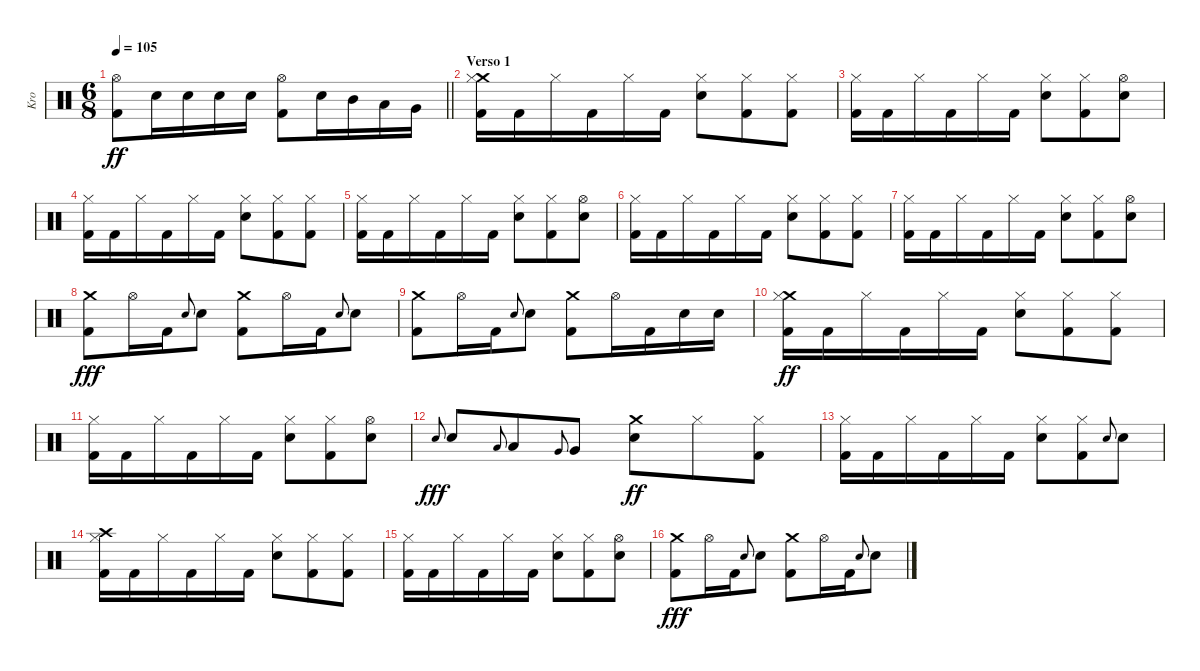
\track ("Kro" "Kro") {instrument percussion}
\staff {score}
\articulation defaults
\ts (6 8)
\tempo 105
\clef neutral
\barLineRight lightlight
\ks c
("Hi-Hat (open)" "Kick (hit) 2").8{dy ff} "Electric Snare (hit)".16 "Electric Snare (hit)".16 "Electric Snare (hit)".16 "Electric Snare (hit)".16 ("Hi-Hat (open)" "Kick (hit) 2").8 "Electric Snare (hit)".16 "Mid Tom (hit)".16 "Low Tom (hit)".16 "Very Low Tom (hit)".16 |
\section ("" "Verso 1")
("Crash medium (hit)" "Hi-Hat (closed)" "Kick (hit) 2").16 "Kick (hit) 2".16 "Hi-Hat (closed)".16 "Kick (hit) 2".16 "Hi-Hat (closed)".16 "Kick (hit) 2".16 ("Hi-Hat (closed)" "Electric Snare (hit)").8 ("Hi-Hat (closed)" "Kick (hit) 2").8 ("Hi-Hat (closed)" "Kick (hit) 2").8 |
("Hi-Hat (closed)" "Kick (hit) 2").16 "Kick (hit) 2".16 "Hi-Hat (closed)".16 "Kick (hit) 2".16 "Hi-Hat (closed)".16 "Kick (hit) 2".16 ("Hi-Hat (closed)" "Electric Snare (hit)").8 ("Hi-Hat (closed)" "Kick (hit) 2").8 ("Hi-Hat (open)" "Electric Snare (hit)").8 |
("Hi-Hat (closed)" "Kick (hit) 2").16 "Kick (hit) 2".16 "Hi-Hat (closed)".16 "Kick (hit) 2".16 "Hi-Hat (closed)".16 "Kick (hit) 2".16 ("Hi-Hat (closed)" "Electric Snare (hit)").8 ("Hi-Hat (closed)" "Kick (hit) 2").8 ("Hi-Hat (closed)" "Kick (hit) 2").8 |
("Hi-Hat (closed)" "Kick (hit) 2").16 "Kick (hit) 2".16 "Hi-Hat (closed)".16 "Kick (hit) 2".16 "Hi-Hat (closed)".16 "Kick (hit) 2".16 ("Hi-Hat (closed)" "Electric Snare (hit)").8 ("Hi-Hat (closed)" "Kick (hit) 2").8 ("Hi-Hat (open)" "Electric Snare (hit)").8 |
("Hi-Hat (closed)" "Kick (hit) 2").16 "Kick (hit) 2".16 "Hi-Hat (closed)".16 "Kick (hit) 2".16 "Hi-Hat (closed)".16 "Kick (hit) 2".16 ("Hi-Hat (closed)" "Electric Snare (hit)").8 ("Hi-Hat (closed)" "Kick (hit) 2").8 ("Hi-Hat (closed)" "Kick (hit) 2").8 |
("Hi-Hat (closed)" "Kick (hit) 2").16 "Kick (hit) 2".16 "Hi-Hat (closed)".16 "Kick (hit) 2".16 "Hi-Hat (closed)".16 "Kick (hit) 2".16 ("Hi-Hat (closed)" "Electric Snare (hit)").8 ("Hi-Hat (closed)" "Kick (hit) 2").8 ("Hi-Hat (open)" "Electric Snare (hit)").8 |
("Crash medium (hit)" "Kick (hit) 2").8{dy fff} "Hi-Hat (open)".16 "Kick (hit) 2".16 "Electric Snare (hit)".8{gr onbeat} "Electric Snare (hit)".8 ("Crash medium (hit)" "Kick (hit) 2").8 "Hi-Hat (open)".16 "Kick (hit) 2".16 "Electric Snare (hit)".8{gr onbeat} "Electric Snare (hit)".8 |
("Crash medium (hit)" "Kick (hit) 2").8 "Hi-Hat (open)".16 "Kick (hit) 2".16 "Electric Snare (hit)".8{gr onbeat} "Electric Snare (hit)".8 ("Crash medium (hit)" "Kick (hit) 2").8 "Hi-Hat (open)".16 "Kick (hit) 2".16 "Electric Snare (hit)".16 "Electric Snare (hit)".16 |
("Crash medium (hit)" "Hi-Hat (closed)" "Kick (hit) 2").16{dy ff} "Kick (hit) 2".16 "Hi-Hat (closed)".16 "Kick (hit) 2".16 "Hi-Hat (closed)".16 "Kick (hit) 2".16 ("Hi-Hat (closed)" "Electric Snare (hit)").8 ("Hi-Hat (closed)" "Kick (hit) 2").8 ("Hi-Hat (closed)" "Kick (hit) 2").8 |
("Hi-Hat (closed)" "Kick (hit) 2").16 "Kick (hit) 2".16 "Hi-Hat (closed)".16 "Kick (hit) 2".16 "Hi-Hat (closed)".16 "Kick (hit) 2".16 ("Hi-Hat (closed)" "Electric Snare (hit)").8 ("Hi-Hat (closed)" "Kick (hit) 2").8 ("Hi-Hat (open)" "Electric Snare (hit)").8 |
"Electric Snare (hit)".8{gr onbeat dy fff} "Electric Snare (hit)".8 "Low Tom (hit)".8{gr onbeat} "Low Tom (hit)".8 "Very Low Tom (hit)".8{gr onbeat} "Very Low Tom (hit)".8 ("Crash medium (hit)" "Electric Snare (hit)").8{dy ff} "Hi-Hat (closed)".8 ("Hi-Hat (closed)" "Kick (hit) 2").8 |
("Hi-Hat (closed)" "Kick (hit) 2").16 "Kick (hit) 2".16 "Hi-Hat (closed)".16 "Kick (hit) 2".16 "Hi-Hat (closed)".16 "Kick (hit) 2".16 ("Hi-Hat (closed)" "Electric Snare (hit)").8 ("Hi-Hat (closed)" "Kick (hit) 2").8 "Electric Snare (hit)".8{gr onbeat} "Electric Snare (hit)".8 |
("Crash high (hit)" "Hi-Hat (closed)" "Kick (hit) 2").16 "Kick (hit) 2".16 "Hi-Hat (closed)".16 "Kick (hit) 2".16 "Hi-Hat (closed)".16 "Kick (hit) 2".16 ("Hi-Hat (closed)" "Electric Snare (hit)").8 ("Hi-Hat (closed)" "Kick (hit) 2").8 ("Hi-Hat (closed)" "Kick (hit) 2").8 |
("Hi-Hat (closed)" "Kick (hit) 2").16 "Kick (hit) 2".16 "Hi-Hat (closed)".16 "Kick (hit) 2".16 "Hi-Hat (closed)".16 "Kick (hit) 2".16 ("Hi-Hat (closed)" "Electric Snare (hit)").8 ("Hi-Hat (closed)" "Kick (hit) 2").8 ("Hi-Hat (open)" "Electric Snare (hit)").8 |
("Crash medium (hit)" "Kick (hit) 2").8{dy fff} "Hi-Hat (open)".16 "Kick (hit) 2".16 "Electric Snare (hit)".8{gr onbeat} "Electric Snare (hit)".8 ("Crash medium (hit)" "Kick (hit) 2").8 "Hi-Hat (open)".16 "Kick (hit) 2".16 "Electric Snare (hit)".8{gr onbeat} "Electric Snare (hit)".8
